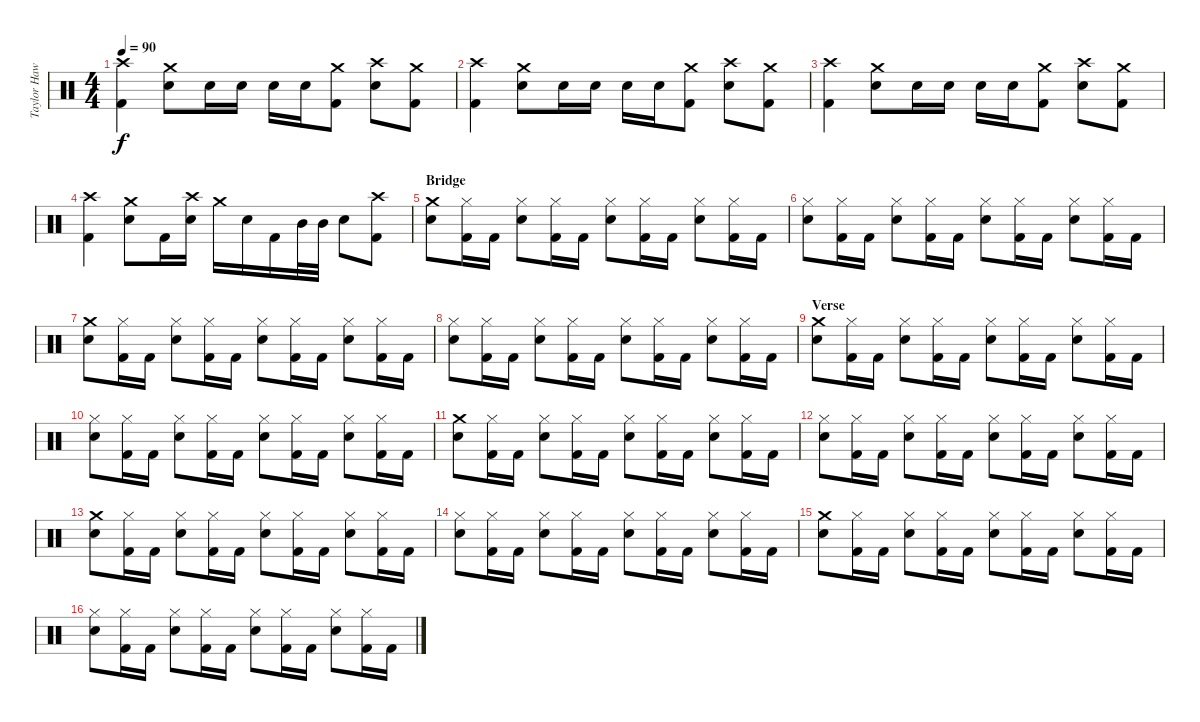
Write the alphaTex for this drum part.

\track ("Taylor Hawkins" "Taylor Haw") {instrument percussion}
\staff {score}
\articulation defaults
\ts (4 4)
\tempo 90
\clef neutral
\ks c
("Crash high (hit)" "Kick (hit) 2").4{dy f} ("Crash medium (hit)" "Electric Snare (hit)").8 "Electric Snare (hit)".16 "Electric Snare (hit)".16 "Electric Snare (hit)".16 "Electric Snare (hit)".16 ("Crash medium (hit)" "Kick (hit) 2").8 ("Crash high (hit)" "Electric Snare (hit)").8 ("Crash medium (hit)" "Kick (hit) 2").8 |
("Crash high (hit)" "Kick (hit) 2").4 ("Crash medium (hit)" "Electric Snare (hit)").8 "Electric Snare (hit)".16 "Electric Snare (hit)".16 "Electric Snare (hit)".16 "Electric Snare (hit)".16 ("Crash medium (hit)" "Kick (hit) 2").8 ("Crash high (hit)" "Electric Snare (hit)").8 ("Crash medium (hit)" "Kick (hit) 2").8 |
("Crash high (hit)" "Kick (hit) 2").4 ("Crash medium (hit)" "Electric Snare (hit)").8 "Electric Snare (hit)".16 "Electric Snare (hit)".16 "Electric Snare (hit)".16 "Electric Snare (hit)".16 ("Crash medium (hit)" "Kick (hit) 2").8 ("Crash high (hit)" "Electric Snare (hit)").8 ("Crash medium (hit)" "Kick (hit) 2").8 |
("Crash high (hit)" "Kick (hit) 2").4 ("Crash medium (hit)" "Electric Snare (hit)").8 "Kick (hit) 2".16 ("Crash high (hit)" "Electric Snare (hit)").16 "Crash medium (hit)".16 "Electric Snare (hit)".16 "Kick (hit) 2".16 "Mid Tom (hit)".32 "Mid Tom (hit)".32 "Electric Snare (hit)".8 ("Crash high (hit)" "Kick (hit) 2").8 |
\section ("" "Bridge")
("Crash medium (hit)" "Electric Snare (hit)").8 ("Hi-Hat (closed)" "Kick (hit) 2").16 "Kick (hit) 2".16 ("Hi-Hat (closed)" "Electric Snare (hit)").8 ("Hi-Hat (closed)" "Kick (hit) 2").16 "Kick (hit) 2".16 ("Hi-Hat (closed)" "Electric Snare (hit)").8 ("Hi-Hat (closed)" "Kick (hit) 2").16 "Kick (hit) 2".16 ("Hi-Hat (closed)" "Electric Snare (hit)").8 ("Hi-Hat (closed)" "Kick (hit) 2").16 "Kick (hit) 2".16 |
("Hi-Hat (closed)" "Electric Snare (hit)").8 ("Hi-Hat (closed)" "Kick (hit) 2").16 "Kick (hit) 2".16 ("Hi-Hat (closed)" "Electric Snare (hit)").8 ("Hi-Hat (closed)" "Kick (hit) 2").16 "Kick (hit) 2".16 ("Hi-Hat (closed)" "Electric Snare (hit)").8 ("Hi-Hat (closed)" "Kick (hit) 2").16 "Kick (hit) 2".16 ("Hi-Hat (closed)" "Electric Snare (hit)").8 ("Hi-Hat (closed)" "Kick (hit) 2").16 "Kick (hit) 2".16 |
("Crash medium (hit)" "Electric Snare (hit)").8 ("Hi-Hat (closed)" "Kick (hit) 2").16 "Kick (hit) 2".16 ("Hi-Hat (closed)" "Electric Snare (hit)").8 ("Hi-Hat (closed)" "Kick (hit) 2").16 "Kick (hit) 2".16 ("Hi-Hat (closed)" "Electric Snare (hit)").8 ("Hi-Hat (closed)" "Kick (hit) 2").16 "Kick (hit) 2".16 ("Hi-Hat (closed)" "Electric Snare (hit)").8 ("Hi-Hat (closed)" "Kick (hit) 2").16 "Kick (hit) 2".16 |
("Hi-Hat (closed)" "Electric Snare (hit)").8 ("Hi-Hat (closed)" "Kick (hit) 2").16 "Kick (hit) 2".16 ("Hi-Hat (closed)" "Electric Snare (hit)").8 ("Hi-Hat (closed)" "Kick (hit) 2").16 "Kick (hit) 2".16 ("Hi-Hat (closed)" "Electric Snare (hit)").8 ("Hi-Hat (closed)" "Kick (hit) 2").16 "Kick (hit) 2".16 ("Hi-Hat (closed)" "Electric Snare (hit)").8 ("Hi-Hat (closed)" "Kick (hit) 2").16 "Kick (hit) 2".16 |
\section ("" "Verse")
("Crash medium (hit)" "Electric Snare (hit)").8 ("Hi-Hat (closed)" "Kick (hit) 2").16 "Kick (hit) 2".16 ("Hi-Hat (closed)" "Electric Snare (hit)").8 ("Hi-Hat (closed)" "Kick (hit) 2").16 "Kick (hit) 2".16 ("Hi-Hat (closed)" "Electric Snare (hit)").8 ("Hi-Hat (closed)" "Kick (hit) 2").16 "Kick (hit) 2".16 ("Hi-Hat (closed)" "Electric Snare (hit)").8 ("Hi-Hat (closed)" "Kick (hit) 2").16 "Kick (hit) 2".16 |
("Hi-Hat (closed)" "Electric Snare (hit)").8 ("Hi-Hat (closed)" "Kick (hit) 2").16 "Kick (hit) 2".16 ("Hi-Hat (closed)" "Electric Snare (hit)").8 ("Hi-Hat (closed)" "Kick (hit) 2").16 "Kick (hit) 2".16 ("Hi-Hat (closed)" "Electric Snare (hit)").8 ("Hi-Hat (closed)" "Kick (hit) 2").16 "Kick (hit) 2".16 ("Hi-Hat (closed)" "Electric Snare (hit)").8 ("Hi-Hat (closed)" "Kick (hit) 2").16 "Kick (hit) 2".16 |
("Crash medium (hit)" "Electric Snare (hit)").8 ("Hi-Hat (closed)" "Kick (hit) 2").16 "Kick (hit) 2".16 ("Hi-Hat (closed)" "Electric Snare (hit)").8 ("Hi-Hat (closed)" "Kick (hit) 2").16 "Kick (hit) 2".16 ("Hi-Hat (closed)" "Electric Snare (hit)").8 ("Hi-Hat (closed)" "Kick (hit) 2").16 "Kick (hit) 2".16 ("Hi-Hat (closed)" "Electric Snare (hit)").8 ("Hi-Hat (closed)" "Kick (hit) 2").16 "Kick (hit) 2".16 |
("Hi-Hat (closed)" "Electric Snare (hit)").8 ("Hi-Hat (closed)" "Kick (hit) 2").16 "Kick (hit) 2".16 ("Hi-Hat (closed)" "Electric Snare (hit)").8 ("Hi-Hat (closed)" "Kick (hit) 2").16 "Kick (hit) 2".16 ("Hi-Hat (closed)" "Electric Snare (hit)").8 ("Hi-Hat (closed)" "Kick (hit) 2").16 "Kick (hit) 2".16 ("Hi-Hat (closed)" "Electric Snare (hit)").8 ("Hi-Hat (closed)" "Kick (hit) 2").16 "Kick (hit) 2".16 |
("Crash medium (hit)" "Electric Snare (hit)").8 ("Hi-Hat (closed)" "Kick (hit) 2").16 "Kick (hit) 2".16 ("Hi-Hat (closed)" "Electric Snare (hit)").8 ("Hi-Hat (closed)" "Kick (hit) 2").16 "Kick (hit) 2".16 ("Hi-Hat (closed)" "Electric Snare (hit)").8 ("Hi-Hat (closed)" "Kick (hit) 2").16 "Kick (hit) 2".16 ("Hi-Hat (closed)" "Electric Snare (hit)").8 ("Hi-Hat (closed)" "Kick (hit) 2").16 "Kick (hit) 2".16 |
("Hi-Hat (closed)" "Electric Snare (hit)").8 ("Hi-Hat (closed)" "Kick (hit) 2").16 "Kick (hit) 2".16 ("Hi-Hat (closed)" "Electric Snare (hit)").8 ("Hi-Hat (closed)" "Kick (hit) 2").16 "Kick (hit) 2".16 ("Hi-Hat (closed)" "Electric Snare (hit)").8 ("Hi-Hat (closed)" "Kick (hit) 2").16 "Kick (hit) 2".16 ("Hi-Hat (closed)" "Electric Snare (hit)").8 ("Hi-Hat (closed)" "Kick (hit) 2").16 "Kick (hit) 2".16 |
("Crash medium (hit)" "Electric Snare (hit)").8 ("Hi-Hat (closed)" "Kick (hit) 2").16 "Kick (hit) 2".16 ("Hi-Hat (closed)" "Electric Snare (hit)").8 ("Hi-Hat (closed)" "Kick (hit) 2").16 "Kick (hit) 2".16 ("Hi-Hat (closed)" "Electric Snare (hit)").8 ("Hi-Hat (closed)" "Kick (hit) 2").16 "Kick (hit) 2".16 ("Hi-Hat (closed)" "Electric Snare (hit)").8 ("Hi-Hat (closed)" "Kick (hit) 2").16 "Kick (hit) 2".16 |
("Hi-Hat (closed)" "Electric Snare (hit)").8 ("Hi-Hat (closed)" "Kick (hit) 2").16 "Kick (hit) 2".16 ("Hi-Hat (closed)" "Electric Snare (hit)").8 ("Hi-Hat (closed)" "Kick (hit) 2").16 "Kick (hit) 2".16 ("Hi-Hat (closed)" "Electric Snare (hit)").8 ("Hi-Hat (closed)" "Kick (hit) 2").16 "Kick (hit) 2".16 ("Hi-Hat (closed)" "Electric Snare (hit)").8 ("Hi-Hat (closed)" "Kick (hit) 2").16 "Kick (hit) 2".16
